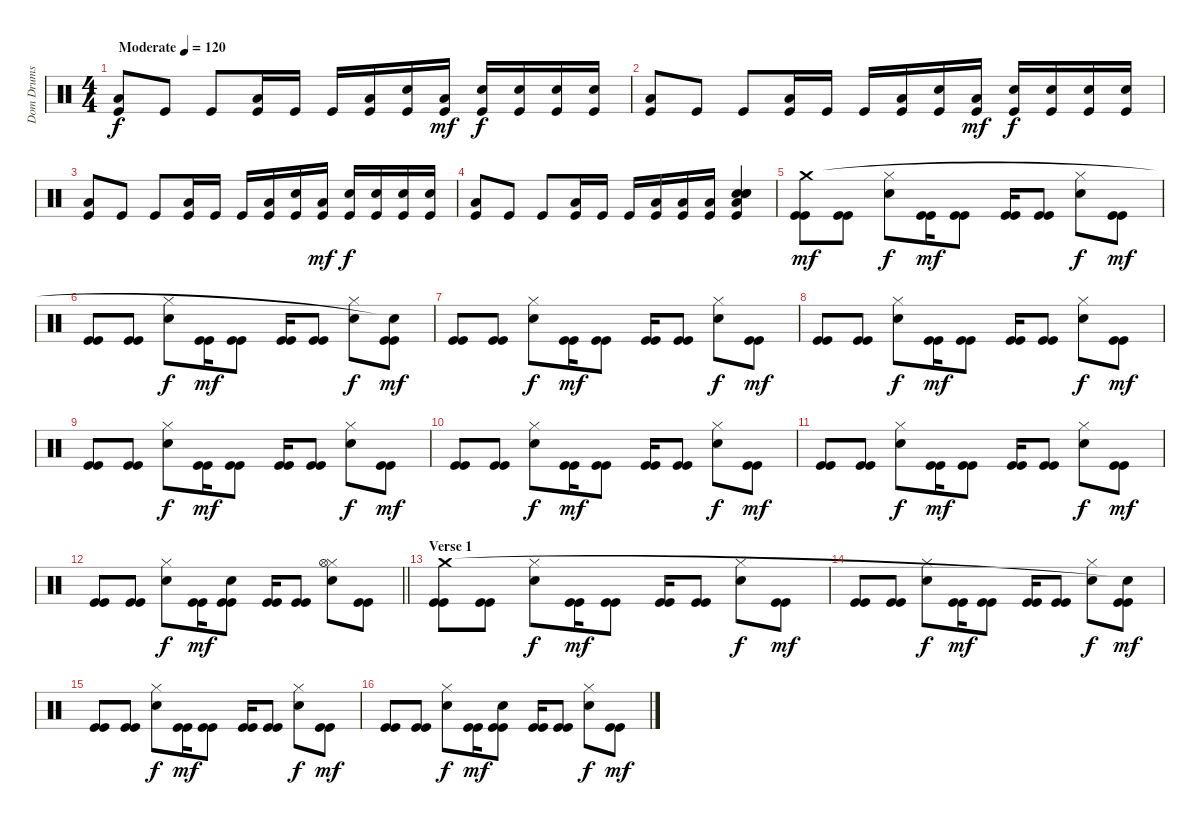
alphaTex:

\track ("Dom Drums" "Dom Drums") {instrument percussion}
\staff {score}
\articulation defaults
\ts (4 4)
\tempo (120 "Moderate")
\clef neutral
\ks c
("Kick (hit)" "Low Floor Tom (hit)").8{dy f} "Kick (hit)".8 "Kick (hit)".8 ("Kick (hit)" "Low Floor Tom (hit)").16 "Kick (hit)".16 "Kick (hit)".16 ("Kick (hit)" "Low Floor Tom (hit)").16 ("Kick (hit)" "Electric Snare (hit)").16 ("Kick (hit)" "Low Floor Tom (hit)").16{dy mf} ("Kick (hit)" "Electric Snare (hit)").16{dy f} ("Kick (hit)" "Electric Snare (hit)").16 ("Kick (hit)" "Electric Snare (hit)").16 ("Kick (hit)" "Electric Snare (hit)").16 |
("Kick (hit)" "Low Floor Tom (hit)").8 "Kick (hit)".8 "Kick (hit)".8 ("Kick (hit)" "Low Floor Tom (hit)").16 "Kick (hit)".16 "Kick (hit)".16 ("Kick (hit)" "Low Floor Tom (hit)").16 ("Kick (hit)" "Electric Snare (hit)").16 ("Kick (hit)" "Low Floor Tom (hit)").16{dy mf} ("Kick (hit)" "Electric Snare (hit)").16{dy f} ("Kick (hit)" "Electric Snare (hit)").16 ("Kick (hit)" "Electric Snare (hit)").16 ("Kick (hit)" "Electric Snare (hit)").16 |
("Kick (hit)" "Low Floor Tom (hit)").8 "Kick (hit)".8 "Kick (hit)".8 ("Kick (hit)" "Low Floor Tom (hit)").16 "Kick (hit)".16 "Kick (hit)".16 ("Kick (hit)" "Low Floor Tom (hit)").16 ("Kick (hit)" "Electric Snare (hit)").16 ("Kick (hit)" "Low Floor Tom (hit)").16{dy mf} ("Kick (hit)" "Electric Snare (hit)").16{dy f} ("Kick (hit)" "Electric Snare (hit)").16 ("Kick (hit)" "Electric Snare (hit)").16 ("Kick (hit)" "Electric Snare (hit)").16 |
("Kick (hit)" "Low Floor Tom (hit)").8 "Kick (hit)".8 "Kick (hit)".8 ("Kick (hit)" "Low Floor Tom (hit)").16 "Kick (hit)".16 "Kick (hit)".16 ("Kick (hit)" "Low Floor Tom (hit)").16 ("Kick (hit)" "Low Floor Tom (hit)").16 ("Kick (hit)" "Low Floor Tom (hit)").16 ("Kick (hit)" "Snare (hit) 2" "Low Floor Tom (hit)" "Hand Clap (hit)" "Snare (hit) 2").4 |
("Kick (hit)" "Kick (hit)" "Crash medium (hit)").8{dy mf} ("Kick (hit)" "Kick (hit)").8 ("Electric Snare (hit)" "Hi-Hat (closed)").8{dy f} ("Kick (hit)" "Kick (hit)").16{dy mf} ("Kick (hit)" "Kick (hit)").8 ("Kick (hit)" "Kick (hit)").16 ("Kick (hit)" "Kick (hit)").8 ("Electric Snare (hit)" "Hi-Hat (closed)").8{dy f} ("Kick (hit)" "Kick (hit)").8{dy mf} |
("Kick (hit)" "Kick (hit)").8 ("Kick (hit)" "Kick (hit)").8 ("Electric Snare (hit)" "Hi-Hat (closed)").8{dy f} ("Kick (hit)" "Kick (hit)").16{dy mf} ("Kick (hit)" "Kick (hit)").8 ("Kick (hit)" "Kick (hit)").16 ("Kick (hit)" "Kick (hit)").8 ("Electric Snare (hit)" "Hi-Hat (closed)").8{dy f} ("Kick (hit)" "Kick (hit)" "Snare (hit)"{t}).8{dy mf} |
("Kick (hit)" "Kick (hit)").8 ("Kick (hit)" "Kick (hit)").8 ("Electric Snare (hit)" "Hi-Hat (closed)").8{dy f} ("Kick (hit)" "Kick (hit)").16{dy mf} ("Kick (hit)" "Kick (hit)").8 ("Kick (hit)" "Kick (hit)").16 ("Kick (hit)" "Kick (hit)").8 ("Electric Snare (hit)" "Hi-Hat (closed)").8{dy f} ("Kick (hit)" "Kick (hit)").8{dy mf} |
("Kick (hit)" "Kick (hit)").8 ("Kick (hit)" "Kick (hit)").8 ("Electric Snare (hit)" "Hi-Hat (closed)").8{dy f} ("Kick (hit)" "Kick (hit)").16{dy mf} ("Kick (hit)" "Kick (hit)").8 ("Kick (hit)" "Kick (hit)").16 ("Kick (hit)" "Kick (hit)").8 ("Electric Snare (hit)" "Hi-Hat (closed)").8{dy f} ("Kick (hit)" "Kick (hit)").8{dy mf} |
("Kick (hit)" "Kick (hit)").8 ("Kick (hit)" "Kick (hit)").8 ("Electric Snare (hit)" "Hi-Hat (closed)").8{dy f} ("Kick (hit)" "Kick (hit)").16{dy mf} ("Kick (hit)" "Kick (hit)").8 ("Kick (hit)" "Kick (hit)").16 ("Kick (hit)" "Kick (hit)").8 ("Electric Snare (hit)" "Hi-Hat (closed)").8{dy f} ("Kick (hit)" "Kick (hit)").8{dy mf} |
("Kick (hit)" "Kick (hit)").8 ("Kick (hit)" "Kick (hit)").8 ("Electric Snare (hit)" "Hi-Hat (closed)").8{dy f} ("Kick (hit)" "Kick (hit)").16{dy mf} ("Kick (hit)" "Kick (hit)").8 ("Kick (hit)" "Kick (hit)").16 ("Kick (hit)" "Kick (hit)").8 ("Electric Snare (hit)" "Hi-Hat (closed)").8{dy f} ("Kick (hit)" "Kick (hit)").8{dy mf} |
("Kick (hit)" "Kick (hit)").8 ("Kick (hit)" "Kick (hit)").8 ("Electric Snare (hit)" "Hi-Hat (closed)").8{dy f} ("Kick (hit)" "Kick (hit)").16{dy mf} ("Kick (hit)" "Kick (hit)").8 ("Kick (hit)" "Kick (hit)").16 ("Kick (hit)" "Kick (hit)").8 ("Electric Snare (hit)" "Hi-Hat (closed)").8{dy f} ("Kick (hit)" "Kick (hit)").8{dy mf} |
\barLineRight lightlight
("Kick (hit)" "Kick (hit)").8 ("Kick (hit)" "Kick (hit)").8 ("Electric Snare (hit)" "Hi-Hat (closed)").8{dy f} ("Kick (hit)" "Kick (hit)").16{dy mf} ("Kick (hit)" "Kick (hit)" "Electric Snare (hit)").8 ("Kick (hit)" "Kick (hit)").16 ("Kick (hit)" "Kick (hit)").8 ("Electric Snare (hit)" "Hi-Hat (closed)" "Hi-Hat (open)").8 ("Kick (hit)" "Kick (hit)").8 |
\section ("" "Verse 1")
("Kick (hit)" "Kick (hit)" "Crash medium (hit)").8 ("Kick (hit)" "Kick (hit)").8 ("Electric Snare (hit)" "Hi-Hat (closed)").8{dy f} ("Kick (hit)" "Kick (hit)").16{dy mf} ("Kick (hit)" "Kick (hit)").8 ("Kick (hit)" "Kick (hit)").16 ("Kick (hit)" "Kick (hit)").8 ("Electric Snare (hit)" "Hi-Hat (closed)").8{dy f} ("Kick (hit)" "Kick (hit)").8{dy mf} |
("Kick (hit)" "Kick (hit)").8 ("Kick (hit)" "Kick (hit)").8 ("Electric Snare (hit)" "Hi-Hat (closed)").8{dy f} ("Kick (hit)" "Kick (hit)").16{dy mf} ("Kick (hit)" "Kick (hit)").8 ("Kick (hit)" "Kick (hit)").16 ("Kick (hit)" "Kick (hit)").8 ("Electric Snare (hit)" "Hi-Hat (closed)").8{dy f} ("Kick (hit)" "Kick (hit)" "Snare (hit)"{t}).8{dy mf} |
("Kick (hit)" "Kick (hit)").8 ("Kick (hit)" "Kick (hit)").8 ("Electric Snare (hit)" "Hi-Hat (closed)").8{dy f} ("Kick (hit)" "Kick (hit)").16{dy mf} ("Kick (hit)" "Kick (hit)").8 ("Kick (hit)" "Kick (hit)").16 ("Kick (hit)" "Kick (hit)").8 ("Electric Snare (hit)" "Hi-Hat (closed)").8{dy f} ("Kick (hit)" "Kick (hit)").8{dy mf} |
("Kick (hit)" "Kick (hit)").8 ("Kick (hit)" "Kick (hit)").8 ("Electric Snare (hit)" "Hi-Hat (closed)").8{dy f} ("Kick (hit)" "Kick (hit)").16{dy mf} ("Kick (hit)" "Kick (hit)" "Electric Snare (hit)").8 ("Kick (hit)" "Kick (hit)").16 ("Kick (hit)" "Kick (hit)").8 ("Electric Snare (hit)" "Hi-Hat (closed)").8{dy f} ("Kick (hit)" "Kick (hit)").8{dy mf}
